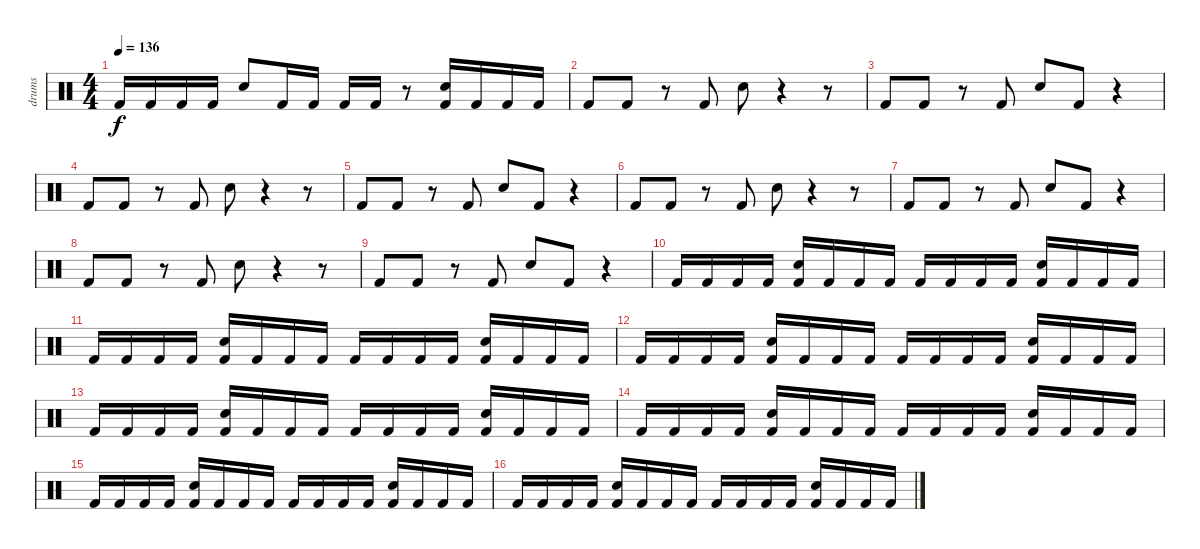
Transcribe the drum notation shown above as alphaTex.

\track ("drums" "drums") {instrument percussion}
\staff {score}
\articulation defaults
\ts (4 4)
\tempo 136
\clef neutral
\ks c "Kick (hit) 2".16{dy f} "Kick (hit) 2".16 "Kick (hit) 2".16 "Kick (hit) 2".16 "Electric Snare (hit)".8 "Kick (hit) 2".16 "Kick (hit) 2".16 "Kick (hit) 2".16 "Kick (hit) 2".16
r.8 ("Electric Snare (hit)" "Kick (hit) 2").16 "Kick (hit) 2".16 "Kick (hit) 2".16 "Kick (hit) 2".16 |
"Kick (hit) 2".8 "Kick (hit) 2".8 r.8 "Kick (hit) 2".8 "Electric Snare (hit)".8 r.4 r.8 |
"Kick (hit) 2".8 "Kick (hit) 2".8 r.8 "Kick (hit) 2".8 "Electric Snare (hit)".8 "Kick (hit) 2".8 r.4 |
"Kick (hit) 2".8 "Kick (hit) 2".8 r.8 "Kick (hit) 2".8 "Electric Snare (hit)".8 r.4 r.8 |
"Kick (hit) 2".8 "Kick (hit) 2".8 r.8 "Kick (hit) 2".8 "Electric Snare (hit)".8 "Kick (hit) 2".8 r.4 |
"Kick (hit) 2".8 "Kick (hit) 2".8 r.8 "Kick (hit) 2".8 "Electric Snare (hit)".8 r.4 r.8 |
"Kick (hit) 2".8 "Kick (hit) 2".8 r.8 "Kick (hit) 2".8 "Electric Snare (hit)".8 "Kick (hit) 2".8 r.4 |
"Kick (hit) 2".8 "Kick (hit) 2".8 r.8 "Kick (hit) 2".8 "Electric Snare (hit)".8 r.4 r.8 |
"Kick (hit) 2".8 "Kick (hit) 2".8 r.8 "Kick (hit) 2".8 "Electric Snare (hit)".8 "Kick (hit) 2".8 r.4 |
"Kick (hit) 2".16 "Kick (hit) 2".16 "Kick (hit) 2".16 "Kick (hit) 2".16 ("Electric Snare (hit)" "Kick (hit) 2").16 "Kick (hit) 2".16 "Kick (hit) 2".16 "Kick (hit) 2".16 "Kick (hit) 2".16 "Kick (hit) 2".16 "Kick (hit) 2".16 "Kick (hit) 2".16 ("Electric Snare (hit)" "Kick (hit) 2").16 "Kick (hit) 2".16 "Kick (hit) 2".16 "Kick (hit) 2".16 |
"Kick (hit) 2".16 "Kick (hit) 2".16 "Kick (hit) 2".16 "Kick (hit) 2".16 ("Electric Snare (hit)" "Kick (hit) 2").16 "Kick (hit) 2".16 "Kick (hit) 2".16 "Kick (hit) 2".16 "Kick (hit) 2".16 "Kick (hit) 2".16 "Kick (hit) 2".16 "Kick (hit) 2".16 ("Electric Snare (hit)" "Kick (hit) 2").16 "Kick (hit) 2".16 "Kick (hit) 2".16 "Kick (hit) 2".16 |
"Kick (hit) 2".16 "Kick (hit) 2".16 "Kick (hit) 2".16 "Kick (hit) 2".16 ("Electric Snare (hit)" "Kick (hit) 2").16 "Kick (hit) 2".16 "Kick (hit) 2".16 "Kick (hit) 2".16 "Kick (hit) 2".16 "Kick (hit) 2".16 "Kick (hit) 2".16 "Kick (hit) 2".16 ("Electric Snare (hit)" "Kick (hit) 2").16 "Kick (hit) 2".16 "Kick (hit) 2".16 "Kick (hit) 2".16 |
"Kick (hit) 2".16 "Kick (hit) 2".16 "Kick (hit) 2".16 "Kick (hit) 2".16 ("Electric Snare (hit)" "Kick (hit) 2").16 "Kick (hit) 2".16 "Kick (hit) 2".16 "Kick (hit) 2".16 "Kick (hit) 2".16 "Kick (hit) 2".16 "Kick (hit) 2".16 "Kick (hit) 2".16 ("Electric Snare (hit)" "Kick (hit) 2").16 "Kick (hit) 2".16 "Kick (hit) 2".16 "Kick (hit) 2".16 |
"Kick (hit) 2".16 "Kick (hit) 2".16 "Kick (hit) 2".16 "Kick (hit) 2".16 ("Electric Snare (hit)" "Kick (hit) 2").16 "Kick (hit) 2".16 "Kick (hit) 2".16 "Kick (hit) 2".16 "Kick (hit) 2".16 "Kick (hit) 2".16 "Kick (hit) 2".16 "Kick (hit) 2".16 ("Electric Snare (hit)" "Kick (hit) 2").16 "Kick (hit) 2".16 "Kick (hit) 2".16 "Kick (hit) 2".16 |
"Kick (hit) 2".16 "Kick (hit) 2".16 "Kick (hit) 2".16 "Kick (hit) 2".16 ("Electric Snare (hit)" "Kick (hit) 2").16 "Kick (hit) 2".16 "Kick (hit) 2".16 "Kick (hit) 2".16 "Kick (hit) 2".16 "Kick (hit) 2".16 "Kick (hit) 2".16 "Kick (hit) 2".16 ("Electric Snare (hit)" "Kick (hit) 2").16 "Kick (hit) 2".16 "Kick (hit) 2".16 "Kick (hit) 2".16 |
"Kick (hit) 2".16 "Kick (hit) 2".16 "Kick (hit) 2".16 "Kick (hit) 2".16 ("Electric Snare (hit)" "Kick (hit) 2").16 "Kick (hit) 2".16 "Kick (hit) 2".16 "Kick (hit) 2".16 "Kick (hit) 2".16 "Kick (hit) 2".16 "Kick (hit) 2".16 "Kick (hit) 2".16 ("Electric Snare (hit)" "Kick (hit) 2").16 "Kick (hit) 2".16 "Kick (hit) 2".16 "Kick (hit) 2".16
